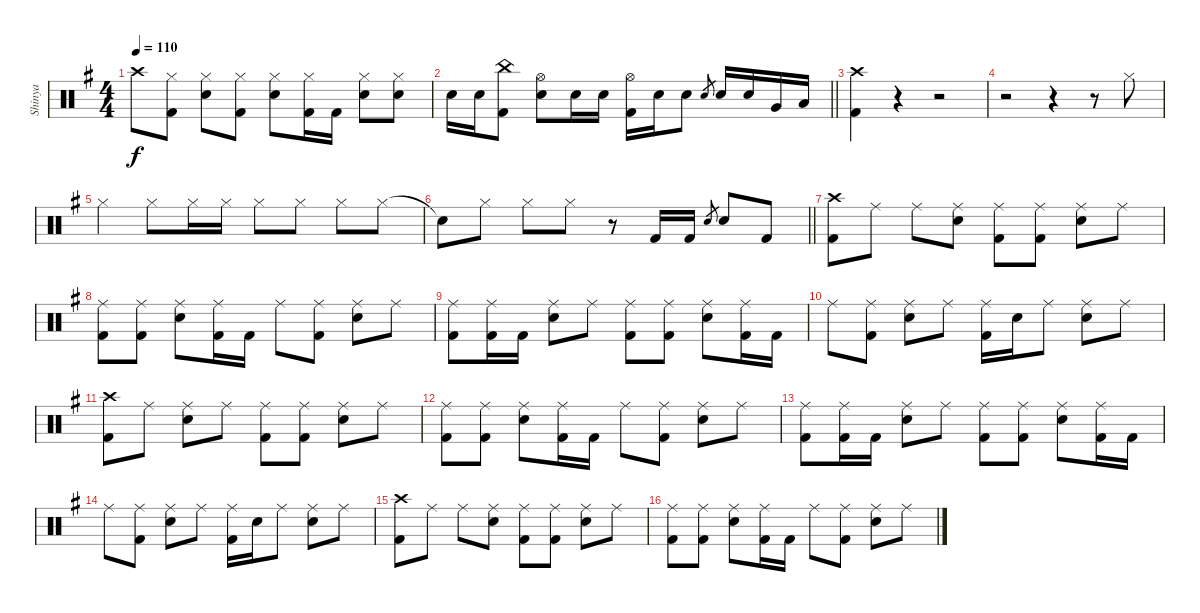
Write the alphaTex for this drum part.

\track ("Shinya" "Shinya") {instrument percussion}
\staff {score}
\articulation defaults
\ts (4 4)
\tempo 110
\clef neutral
\ks g "Crash high (hit)".8{dy f}
("Hi-Hat (closed)" "Kick (hit) 2").8 ("Hi-Hat (closed)" "Electric Snare (hit)").8 ("Hi-Hat (closed)" "Kick (hit) 2").8 ("Hi-Hat (closed)" "Electric Snare (hit)").8 ("Hi-Hat (closed)" "Kick (hit) 2").16 "Kick (hit) 2".16 ("Hi-Hat (closed)" "Electric Snare (hit)").8 ("Hi-Hat (closed)" "Hand Clap (hit)").8 |
\barLineRight lightlight "Electric Snare (hit)".16 "Electric Snare (hit)".16
("China (hit)" "Kick (hit) 2").8 ("Hi-Hat (open)" "Electric Snare (hit)").8 "Electric Snare (hit)".16 "Electric Snare (hit)".16 ("Hi-Hat (open)" "Kick (hit) 2").16 "Electric Snare (hit)".16 "Electric Snare (hit)".8 "Electric Snare (hit)".8{gr} "Electric Snare (hit)".16 "Electric Snare (hit)".16 "Very Low Tom (hit)".16 "Low Floor Tom (hit)".16 |
("Crash high (hit)" "Kick (hit) 2").4 r.4 r.2 |
r.2 r.4 r.8 "Hi-Hat (closed)".8 |
"Hi-Hat (closed)".4 "Hi-Hat (closed)".8 "Hi-Hat (closed)".16 "Hi-Hat (closed)".16 "Hi-Hat (closed)".8 "Hi-Hat (closed)".8 "Hi-Hat (closed)".8 "Hi-Hat (closed)".8 |
\barLineRight lightlight "Snare (hit)"{t}.8 "Hi-Hat (closed)".8 "Hi-Hat (closed)".8 "Hi-Hat (closed)".8
r.8 "Kick (hit) 2".16 "Kick (hit) 2".16 "Electric Snare (hit)".8{gr} "Electric Snare (hit)".8 "Kick (hit) 2".8 |
("Crash high (hit)" "Kick (hit) 2").8{volume 8} "Ride (middle)".8 "Ride (middle)".8 ("Ride (middle)" "Electric Snare (hit)").8 ("Ride (middle)" "Kick (hit) 2").8 ("Ride (middle)" "Kick (hit) 2").8 ("Ride (middle)" "Electric Snare (hit)").8 "Ride (middle)".8 |
("Ride (middle)" "Kick (hit) 2").8 ("Ride (middle)" "Kick (hit) 2").8 ("Ride (middle)" "Electric Snare (hit)").8 ("Ride (middle)" "Kick (hit) 2").16 "Kick (hit) 2".16 "Ride (middle)".8 ("Ride (middle)" "Kick (hit) 2").8 ("Ride (middle)" "Electric Snare (hit)").8 "Ride (middle)".8 |
("Ride (middle)" "Kick (hit) 2").8 ("Ride (middle)" "Kick (hit) 2").16 "Kick (hit) 2".16 ("Ride (middle)" "Electric Snare (hit)").8 "Ride (middle)".8 ("Ride (middle)" "Kick (hit) 2").8 ("Ride (middle)" "Kick (hit) 2").8 ("Ride (middle)" "Electric Snare (hit)").8 ("Ride (middle)" "Kick (hit) 2").16 "Kick (hit) 2".16 |
"Ride (middle)".8 ("Ride (middle)" "Kick (hit) 2").8 ("Ride (middle)" "Electric Snare (hit)").8 "Ride (middle)".8 ("Ride (middle)" "Kick (hit) 2").16 "Electric Snare (hit)".16 "Ride (middle)".8 ("Ride (middle)" "Electric Snare (hit)").8 "Ride (middle)".8 |
("Crash high (hit)" "Kick (hit) 2").8 "Ride (middle)".8 ("Ride (middle)" "Electric Snare (hit)").8 "Ride (middle)".8 ("Ride (middle)" "Kick (hit) 2").8 ("Ride (middle)" "Kick (hit) 2").8 ("Ride (middle)" "Electric Snare (hit)").8 "Ride (middle)".8 |
("Ride (middle)" "Kick (hit) 2").8 ("Ride (middle)" "Kick (hit) 2").8 ("Ride (middle)" "Electric Snare (hit)").8 ("Ride (middle)" "Kick (hit) 2").16 "Kick (hit) 2".16 "Ride (middle)".8 ("Ride (middle)" "Kick (hit) 2").8 ("Ride (middle)" "Electric Snare (hit)").8 "Ride (middle)".8 |
("Ride (middle)" "Kick (hit) 2").8 ("Ride (middle)" "Kick (hit) 2").16 "Kick (hit) 2".16 ("Ride (middle)" "Electric Snare (hit)").8 "Ride (middle)".8 ("Ride (middle)" "Kick (hit) 2").8 ("Ride (middle)" "Kick (hit) 2").8 ("Ride (middle)" "Electric Snare (hit)").8 ("Ride (middle)" "Kick (hit) 2").16 "Kick (hit) 2".16 |
"Ride (middle)".8 ("Ride (middle)" "Kick (hit) 2").8 ("Ride (middle)" "Electric Snare (hit)").8 "Ride (middle)".8 ("Ride (middle)" "Kick (hit) 2").16 "Electric Snare (hit)".16 "Ride (middle)".8 ("Ride (middle)" "Electric Snare (hit)").8 "Ride (middle)".8 |
("Crash high (hit)" "Kick (hit) 2").8 "Ride (middle)".8 "Ride (middle)".8 ("Ride (middle)" "Electric Snare (hit)").8 ("Ride (middle)" "Kick (hit) 2").8 ("Ride (middle)" "Kick (hit) 2").8 ("Ride (middle)" "Electric Snare (hit)").8 "Ride (middle)".8 |
("Ride (middle)" "Kick (hit) 2").8 ("Ride (middle)" "Kick (hit) 2").8 ("Ride (middle)" "Electric Snare (hit)").8 ("Ride (middle)" "Kick (hit) 2").16 "Kick (hit) 2".16 "Ride (middle)".8 ("Ride (middle)" "Kick (hit) 2").8 ("Ride (middle)" "Electric Snare (hit)").8 "Ride (middle)".8
